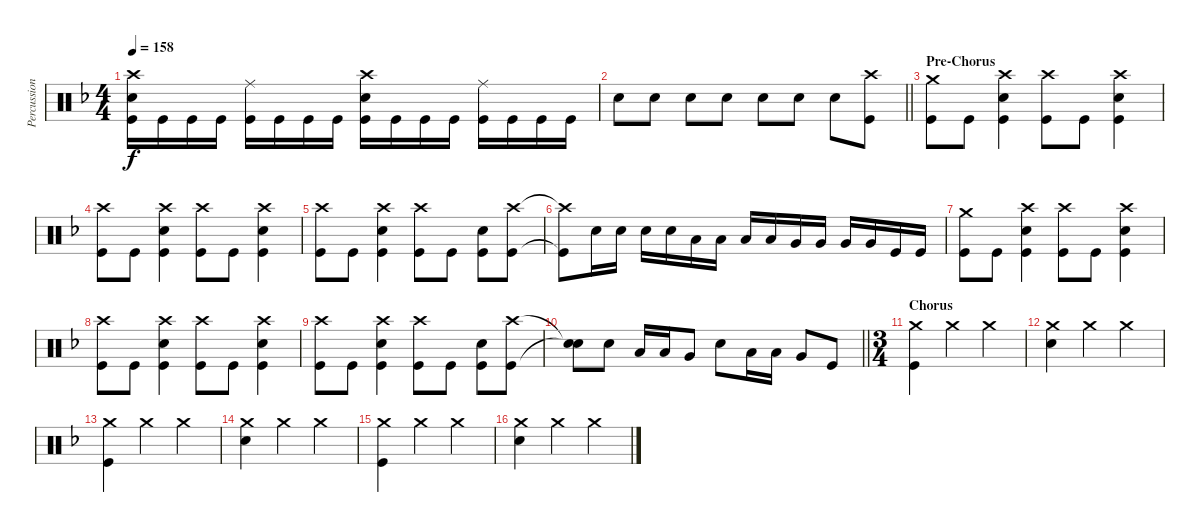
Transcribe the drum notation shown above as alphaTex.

\track ("Percussion" "Percussion") {instrument percussion}
\staff {score}
\articulation defaults
\ts (4 4)
\tempo 158
\clef neutral
\ks f
("Crash high (hit)" "Electric Snare (hit)" "Kick (hit)").16{dy f} "Kick (hit)".16 "Kick (hit)".16 "Kick (hit)".16 ("Ride (middle)" "Kick (hit)").16 "Kick (hit)".16 "Kick (hit)".16 "Kick (hit)".16 ("Crash high (hit)" "Electric Snare (hit)" "Kick (hit)").16 "Kick (hit)".16 "Kick (hit)".16 "Kick (hit)".16 ("Ride (middle)" "Kick (hit)").16 "Kick (hit)".16 "Kick (hit)".16 "Kick (hit)".16 |
\barLineRight lightlight "Electric Snare (hit)".8 "Electric Snare (hit)".8 "Electric Snare (hit)".8 "Electric Snare (hit)".8 "Electric Snare (hit)".8 "Electric Snare (hit)".8 "Electric Snare (hit)".8
("Crash high (hit)" "Kick (hit)").8 |
\section ("" "Pre-Chorus")
("Crash medium (hit)" "Kick (hit)").8 "Kick (hit)".8 ("Crash high (hit)" "Electric Snare (hit)" "Kick (hit)").4 ("Crash high (hit)" "Kick (hit)").8 "Kick (hit)".8 ("Crash high (hit)" "Electric Snare (hit)" "Kick (hit)").4 |
("Crash high (hit)" "Kick (hit)").8 "Kick (hit)".8 ("Crash high (hit)" "Electric Snare (hit)" "Kick (hit)").4 ("Crash high (hit)" "Kick (hit)").8 "Kick (hit)".8 ("Crash high (hit)" "Electric Snare (hit)" "Kick (hit)").4 |
("Crash high (hit)" "Kick (hit)").8 "Kick (hit)".8 ("Crash high (hit)" "Electric Snare (hit)" "Kick (hit)").4 ("Crash high (hit)" "Kick (hit)").8 "Kick (hit)".8 ("Electric Snare (hit)" "Kick (hit)").8 ("Crash high (hit)" "Kick (hit)").8 |
("Crash high (hit)"{t} "Kick (hit)"{t}).8 "Electric Snare (hit)".16 "Electric Snare (hit)".16 "Electric Snare (hit)".16 "Electric Snare (hit)".16 "Low Tom (hit)".16 "Low Tom (hit)".16 "Low Tom (hit)".16 "Low Tom (hit)".16 "Very Low Tom (hit)".16 "Very Low Tom (hit)".16 "Very Low Tom (hit)".16 "Very Low Tom (hit)".16 "Kick (hit)".16 "Kick (hit)".16 |
("Crash medium (hit)" "Kick (hit)").8 "Kick (hit)".8 ("Crash high (hit)" "Electric Snare (hit)" "Kick (hit)").4 ("Crash high (hit)" "Kick (hit)").8 "Kick (hit)".8 ("Crash high (hit)" "Electric Snare (hit)" "Kick (hit)").4 |
("Crash high (hit)" "Kick (hit)").8 "Kick (hit)".8 ("Crash high (hit)" "Electric Snare (hit)" "Kick (hit)").4 ("Crash high (hit)" "Kick (hit)").8 "Kick (hit)".8 ("Crash high (hit)" "Electric Snare (hit)" "Kick (hit)").4 |
("Crash high (hit)" "Kick (hit)").8 "Kick (hit)".8 ("Crash high (hit)" "Electric Snare (hit)" "Kick (hit)").4 ("Crash high (hit)" "Kick (hit)").8 "Kick (hit)".8 ("Electric Snare (hit)" "Kick (hit)").8 ("Crash high (hit)" "Kick (hit)").8 |
\barLineRight lightlight
("Snare (hit)"{t} "Snare (hit)"{t}).8 "Electric Snare (hit)".8 "Low Tom (hit)".16 "Low Tom (hit)".16 "Very Low Tom (hit)".8 "Electric Snare (hit)".8 "Low Tom (hit)".16 "Low Tom (hit)".16 "Very Low Tom (hit)".8 "Kick (hit)".8 |
\ts (3 4)
\section ("" "Chorus")
("Crash medium (hit)" "Kick (hit)").4 "Crash medium (hit)".4 "Crash medium (hit)".4 |
("Crash medium (hit)" "Electric Snare (hit)").4 "Crash medium (hit)".4 "Crash medium (hit)".4 |
("Crash medium (hit)" "Kick (hit)").4 "Crash medium (hit)".4 "Crash medium (hit)".4 |
("Crash medium (hit)" "Electric Snare (hit)").4 "Crash medium (hit)".4 "Crash medium (hit)".4 |
("Crash medium (hit)" "Kick (hit)").4 "Crash medium (hit)".4 "Crash medium (hit)".4 |
("Crash medium (hit)" "Electric Snare (hit)").4 "Crash medium (hit)".4 "Crash medium (hit)".4
